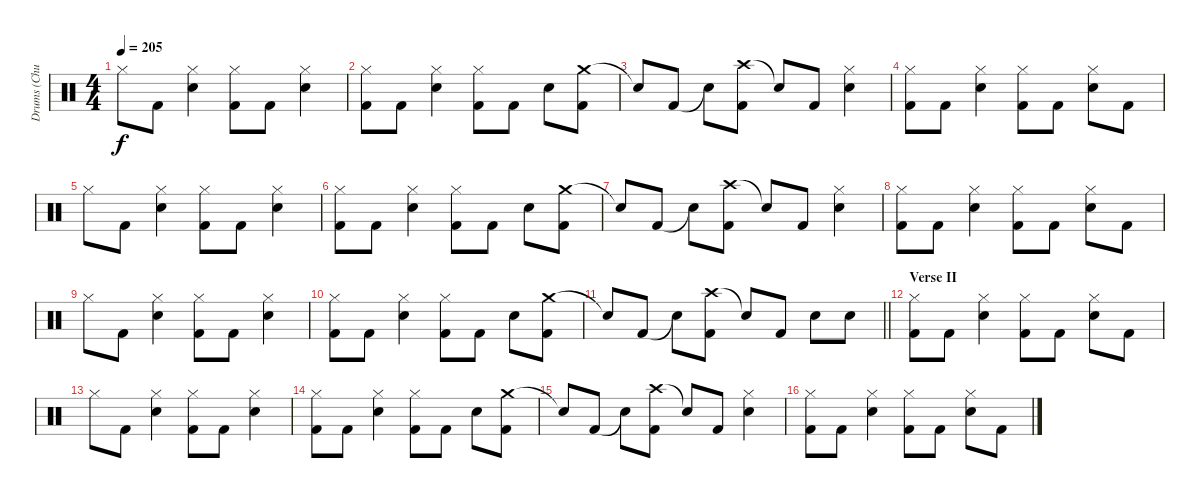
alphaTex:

\track ("Drums (Chuck Behler)" "Drums (Chu") {instrument percussion}
\staff {score}
\articulation defaults
\ts (4 4)
\tempo 205
\clef neutral
\ks c "Hi-Hat (closed)".8{dy f} "Kick (hit) 2".8
("Hi-Hat (closed)" "Electric Snare (hit)").4 ("Hi-Hat (closed)" "Kick (hit) 2").8 "Kick (hit) 2".8 ("Hi-Hat (closed)" "Electric Snare (hit)").4 |
("Hi-Hat (closed)" "Kick (hit) 2").8 "Kick (hit) 2".8 ("Hi-Hat (closed)" "Electric Snare (hit)").4 ("Hi-Hat (closed)" "Kick (hit) 2").8 "Kick (hit) 2".8 "Electric Snare (hit)".8 ("Crash medium (hit)" "Kick (hit) 2").8 |
"Snare (hit)"{t}.8 "Kick (hit) 2".8 "Snare (hit)"{t}.8 ("Crash high (hit)" "Kick (hit) 2").8 "Snare (hit)"{t}.8 "Kick (hit) 2".8 ("Hi-Hat (closed)" "Electric Snare (hit)").4 |
("Hi-Hat (closed)" "Kick (hit) 2").8 "Kick (hit) 2".8 ("Hi-Hat (closed)" "Electric Snare (hit)").4 ("Hi-Hat (closed)" "Kick (hit) 2").8 "Kick (hit) 2".8 ("Hi-Hat (closed)" "Electric Snare (hit)").8 "Kick (hit) 2".8 |
"Hi-Hat (closed)".8 "Kick (hit) 2".8 ("Hi-Hat (closed)" "Electric Snare (hit)").4 ("Hi-Hat (closed)" "Kick (hit) 2").8 "Kick (hit) 2".8 ("Hi-Hat (closed)" "Electric Snare (hit)").4 |
("Hi-Hat (closed)" "Kick (hit) 2").8 "Kick (hit) 2".8 ("Hi-Hat (closed)" "Electric Snare (hit)").4 ("Hi-Hat (closed)" "Kick (hit) 2").8 "Kick (hit) 2".8 "Electric Snare (hit)".8 ("Crash medium (hit)" "Kick (hit) 2").8 |
"Snare (hit)"{t}.8 "Kick (hit) 2".8 "Snare (hit)"{t}.8 ("Crash high (hit)" "Kick (hit) 2").8 "Snare (hit)"{t}.8 "Kick (hit) 2".8 ("Hi-Hat (closed)" "Electric Snare (hit)").4 |
("Hi-Hat (closed)" "Kick (hit) 2").8 "Kick (hit) 2".8 ("Hi-Hat (closed)" "Electric Snare (hit)").4 ("Hi-Hat (closed)" "Kick (hit) 2").8 "Kick (hit) 2".8 ("Hi-Hat (closed)" "Electric Snare (hit)").8 "Kick (hit) 2".8 |
"Hi-Hat (closed)".8 "Kick (hit) 2".8 ("Hi-Hat (closed)" "Electric Snare (hit)").4 ("Hi-Hat (closed)" "Kick (hit) 2").8 "Kick (hit) 2".8 ("Hi-Hat (closed)" "Electric Snare (hit)").4 |
("Hi-Hat (closed)" "Kick (hit) 2").8 "Kick (hit) 2".8 ("Hi-Hat (closed)" "Electric Snare (hit)").4 ("Hi-Hat (closed)" "Kick (hit) 2").8 "Kick (hit) 2".8 "Electric Snare (hit)".8 ("Crash medium (hit)" "Kick (hit) 2").8 |
\barLineRight lightlight "Snare (hit)"{t}.8 "Kick (hit) 2".8 "Snare (hit)"{t}.8
("Crash high (hit)" "Kick (hit) 2").8 "Snare (hit)"{t}.8 "Kick (hit) 2".8 "Electric Snare (hit)".8 "Electric Snare (hit)".8 |
\section ("" "Verse II")
("Hi-Hat (closed)" "Kick (hit) 2").8 "Kick (hit) 2".8 ("Hi-Hat (closed)" "Electric Snare (hit)").4 ("Hi-Hat (closed)" "Kick (hit) 2").8 "Kick (hit) 2".8 ("Hi-Hat (closed)" "Electric Snare (hit)").8 "Kick (hit) 2".8 |
"Hi-Hat (closed)".8 "Kick (hit) 2".8 ("Hi-Hat (closed)" "Electric Snare (hit)").4 ("Hi-Hat (closed)" "Kick (hit) 2").8 "Kick (hit) 2".8 ("Hi-Hat (closed)" "Electric Snare (hit)").4 |
("Hi-Hat (closed)" "Kick (hit) 2").8 "Kick (hit) 2".8 ("Hi-Hat (closed)" "Electric Snare (hit)").4 ("Hi-Hat (closed)" "Kick (hit) 2").8 "Kick (hit) 2".8 "Electric Snare (hit)".8 ("Crash medium (hit)" "Kick (hit) 2").8 |
"Snare (hit)"{t}.8 "Kick (hit) 2".8 "Snare (hit)"{t}.8 ("Crash high (hit)" "Kick (hit) 2").8 "Snare (hit)"{t}.8 "Kick (hit) 2".8 ("Hi-Hat (closed)" "Electric Snare (hit)").4 |
("Hi-Hat (closed)" "Kick (hit) 2").8 "Kick (hit) 2".8 ("Hi-Hat (closed)" "Electric Snare (hit)").4 ("Hi-Hat (closed)" "Kick (hit) 2").8 "Kick (hit) 2".8 ("Hi-Hat (closed)" "Electric Snare (hit)").8 "Kick (hit) 2".8
